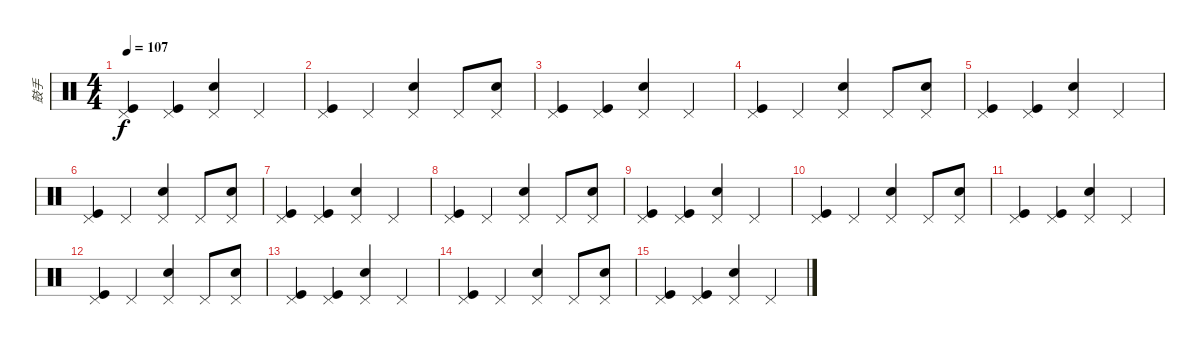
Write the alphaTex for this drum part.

\track ("鼓手" "鼓手") {instrument percussion}
\staff {score}
\articulation defaults
\ts (4 4)
\tempo 107
\clef neutral
\ks c
("Pedal Hi-Hat (hit)" "Kick (hit)").4{dy f} ("Pedal Hi-Hat (hit)" "Kick (hit)").4 ("Pedal Hi-Hat (hit)" "Snare (hit) 2").4 "Pedal Hi-Hat (hit)".4 |
("Pedal Hi-Hat (hit)" "Kick (hit)").4 "Pedal Hi-Hat (hit)".4 ("Pedal Hi-Hat (hit)" "Snare (hit) 2").4 "Pedal Hi-Hat (hit)".8 ("Pedal Hi-Hat (hit)" "Snare (hit) 2").8 |
("Pedal Hi-Hat (hit)" "Kick (hit)").4 ("Pedal Hi-Hat (hit)" "Kick (hit)").4 ("Pedal Hi-Hat (hit)" "Snare (hit) 2").4 "Pedal Hi-Hat (hit)".4 |
("Pedal Hi-Hat (hit)" "Kick (hit)").4 "Pedal Hi-Hat (hit)".4 ("Pedal Hi-Hat (hit)" "Snare (hit) 2").4 "Pedal Hi-Hat (hit)".8 ("Pedal Hi-Hat (hit)" "Snare (hit) 2").8 |
("Pedal Hi-Hat (hit)" "Kick (hit)").4 ("Pedal Hi-Hat (hit)" "Kick (hit)").4 ("Pedal Hi-Hat (hit)" "Snare (hit) 2").4 "Pedal Hi-Hat (hit)".4 |
("Pedal Hi-Hat (hit)" "Kick (hit)").4 "Pedal Hi-Hat (hit)".4 ("Pedal Hi-Hat (hit)" "Snare (hit) 2").4 "Pedal Hi-Hat (hit)".8 ("Pedal Hi-Hat (hit)" "Snare (hit) 2").8 |
("Pedal Hi-Hat (hit)" "Kick (hit)").4 ("Pedal Hi-Hat (hit)" "Kick (hit)").4 ("Pedal Hi-Hat (hit)" "Snare (hit) 2").4 "Pedal Hi-Hat (hit)".4 |
("Pedal Hi-Hat (hit)" "Kick (hit)").4 "Pedal Hi-Hat (hit)".4 ("Pedal Hi-Hat (hit)" "Snare (hit) 2").4 "Pedal Hi-Hat (hit)".8 ("Pedal Hi-Hat (hit)" "Snare (hit) 2").8 |
("Pedal Hi-Hat (hit)" "Kick (hit)").4 ("Pedal Hi-Hat (hit)" "Kick (hit)").4 ("Pedal Hi-Hat (hit)" "Snare (hit) 2").4 "Pedal Hi-Hat (hit)".4 |
("Pedal Hi-Hat (hit)" "Kick (hit)").4 "Pedal Hi-Hat (hit)".4 ("Pedal Hi-Hat (hit)" "Snare (hit) 2").4 "Pedal Hi-Hat (hit)".8 ("Pedal Hi-Hat (hit)" "Snare (hit) 2").8 |
("Pedal Hi-Hat (hit)" "Kick (hit)").4 ("Pedal Hi-Hat (hit)" "Kick (hit)").4 ("Pedal Hi-Hat (hit)" "Snare (hit) 2").4 "Pedal Hi-Hat (hit)".4 |
("Pedal Hi-Hat (hit)" "Kick (hit)").4 "Pedal Hi-Hat (hit)".4 ("Pedal Hi-Hat (hit)" "Snare (hit) 2").4 "Pedal Hi-Hat (hit)".8 ("Pedal Hi-Hat (hit)" "Snare (hit) 2").8 |
("Pedal Hi-Hat (hit)" "Kick (hit)").4 ("Pedal Hi-Hat (hit)" "Kick (hit)").4 ("Pedal Hi-Hat (hit)" "Snare (hit) 2").4 "Pedal Hi-Hat (hit)".4 |
("Pedal Hi-Hat (hit)" "Kick (hit)").4 "Pedal Hi-Hat (hit)".4 ("Pedal Hi-Hat (hit)" "Snare (hit) 2").4 "Pedal Hi-Hat (hit)".8 ("Pedal Hi-Hat (hit)" "Snare (hit) 2").8 |
("Pedal Hi-Hat (hit)" "Kick (hit)").4 ("Pedal Hi-Hat (hit)" "Kick (hit)").4 ("Pedal Hi-Hat (hit)" "Snare (hit) 2").4 "Pedal Hi-Hat (hit)".4
